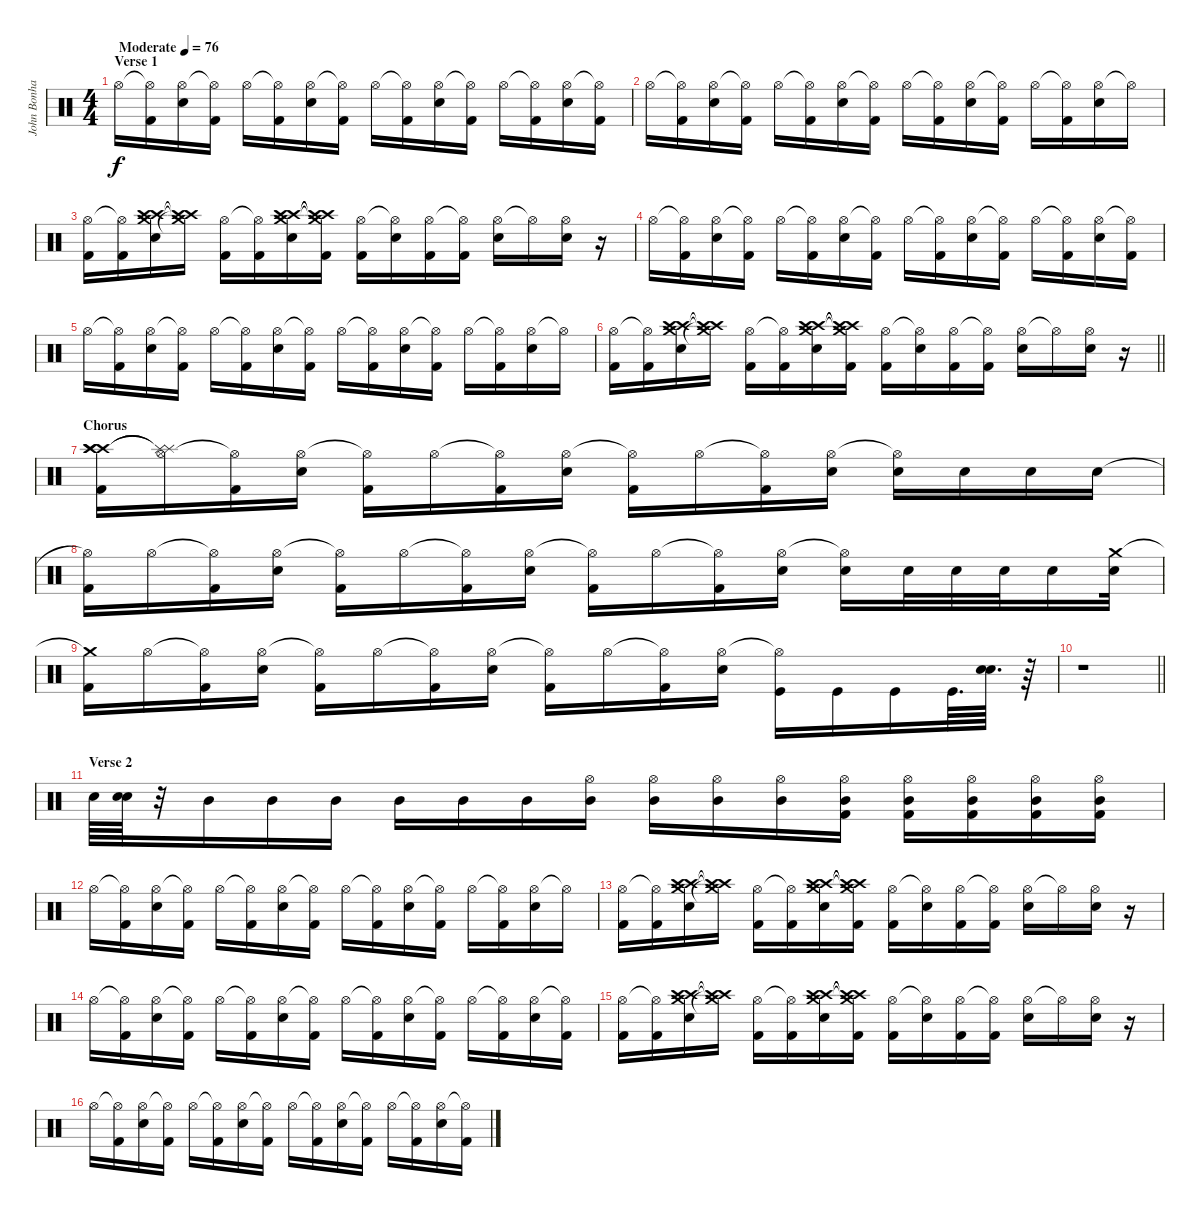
\track ("John Bonham" "John Bonha") {instrument percussion}
\staff {score}
\articulation defaults
\ts (4 4)
\section ("" "Verse 1")
\tempo (76 "Moderate")
\clef neutral
\ks c "Hi-Hat (open)".16{dy f}
("Hi-Hat (open)"{t} "Kick (hit) 2").16 ("Hi-Hat (open)" "Electric Snare (hit)").16 ("Hi-Hat (open)"{t} "Kick (hit) 2").16 "Hi-Hat (open)".16 ("Hi-Hat (open)"{t} "Kick (hit) 2").16 ("Hi-Hat (open)" "Electric Snare (hit)").16 ("Hi-Hat (open)"{t} "Kick (hit) 2").16 "Hi-Hat (open)".16 ("Hi-Hat (open)"{t} "Kick (hit) 2").16 ("Hi-Hat (open)" "Electric Snare (hit)").16 ("Hi-Hat (open)"{t} "Kick (hit) 2").16 "Hi-Hat (open)".16 ("Hi-Hat (open)"{t} "Kick (hit) 2").16 ("Hi-Hat (open)" "Electric Snare (hit)").16 ("Hi-Hat (open)"{t} "Kick (hit) 2").16 |
"Hi-Hat (open)".16 ("Hi-Hat (open)"{t} "Kick (hit) 2").16 ("Hi-Hat (open)" "Electric Snare (hit)").16 ("Hi-Hat (open)"{t} "Kick (hit) 2").16 "Hi-Hat (open)".16 ("Hi-Hat (open)"{t} "Kick (hit) 2").16 ("Hi-Hat (open)" "Electric Snare (hit)").16 ("Hi-Hat (open)"{t} "Kick (hit) 2").16 "Hi-Hat (open)".16 ("Hi-Hat (open)"{t} "Kick (hit) 2").16 ("Hi-Hat (open)" "Electric Snare (hit)").16 ("Hi-Hat (open)"{t} "Kick (hit) 2").16 "Hi-Hat (open)".16 ("Hi-Hat (open)"{t} "Kick (hit) 2").16 ("Hi-Hat (open)" "Electric Snare (hit)").16 "Hi-Hat (open)"{t}.16 |
("Hi-Hat (open)" "Kick (hit) 2").16 ("Hi-Hat (open)"{t} "Kick (hit) 2").16 ("Crash high (hit)" "Crash medium (hit)" "Electric Snare (hit)" "Crash high (hit)").16 ("Crash high (hit)"{t} "Crash medium (hit)"{t} "Crash high (hit)"{t}).16 ("Hi-Hat (open)" "Kick (hit) 2").16 ("Hi-Hat (open)"{t} "Kick (hit) 2").16 ("Crash high (hit)" "Crash medium (hit)" "Electric Snare (hit)" "Crash high (hit)").16 ("Crash high (hit)"{t} "Crash medium (hit)"{t} "Kick (hit) 2" "Crash high (hit)"{t}).16 ("Hi-Hat (open)" "Kick (hit) 2").16 ("Hi-Hat (open)"{t} "Electric Snare (hit)").16 ("Hi-Hat (open)" "Kick (hit) 2").16 ("Hi-Hat (open)"{t} "Kick (hit) 2").16 ("Hi-Hat (open)" "Electric Snare (hit)").16 "Hi-Hat (open)"{t}.16 ("Hi-Hat (open)" "Electric Snare (hit)").16 r.16 |
"Hi-Hat (open)".16 ("Hi-Hat (open)"{t} "Kick (hit) 2").16 ("Hi-Hat (open)" "Electric Snare (hit)").16 ("Hi-Hat (open)"{t} "Kick (hit) 2").16 "Hi-Hat (open)".16 ("Hi-Hat (open)"{t} "Kick (hit) 2").16 ("Hi-Hat (open)" "Electric Snare (hit)").16 ("Hi-Hat (open)"{t} "Kick (hit) 2").16 "Hi-Hat (open)".16 ("Hi-Hat (open)"{t} "Kick (hit) 2").16 ("Hi-Hat (open)" "Electric Snare (hit)").16 ("Hi-Hat (open)"{t} "Kick (hit) 2").16 "Hi-Hat (open)".16 ("Hi-Hat (open)"{t} "Kick (hit) 2").16 ("Hi-Hat (open)" "Electric Snare (hit)").16 ("Hi-Hat (open)"{t} "Kick (hit) 2").16 |
"Hi-Hat (open)".16 ("Hi-Hat (open)"{t} "Kick (hit) 2").16 ("Hi-Hat (open)" "Electric Snare (hit)").16 ("Hi-Hat (open)"{t} "Kick (hit) 2").16 "Hi-Hat (open)".16 ("Hi-Hat (open)"{t} "Kick (hit) 2").16 ("Hi-Hat (open)" "Electric Snare (hit)").16 ("Hi-Hat (open)"{t} "Kick (hit) 2").16 "Hi-Hat (open)".16 ("Hi-Hat (open)"{t} "Kick (hit) 2").16 ("Hi-Hat (open)" "Electric Snare (hit)").16 ("Hi-Hat (open)"{t} "Kick (hit) 2").16 "Hi-Hat (open)".16 ("Hi-Hat (open)"{t} "Kick (hit) 2").16 ("Hi-Hat (open)" "Electric Snare (hit)").16 "Hi-Hat (open)"{t}.16 |
\barLineRight lightlight
("Hi-Hat (open)" "Kick (hit) 2").16 ("Hi-Hat (open)"{t} "Kick (hit) 2").16 ("Crash high (hit)" "Crash medium (hit)" "Electric Snare (hit)" "Crash high (hit)").16 ("Crash high (hit)"{t} "Crash medium (hit)"{t} "Crash high (hit)"{t}).16 ("Hi-Hat (open)" "Kick (hit) 2").16 ("Hi-Hat (open)"{t} "Kick (hit) 2").16 ("Crash high (hit)" "Crash medium (hit)" "Electric Snare (hit)" "Crash high (hit)").16 ("Crash high (hit)"{t} "Crash medium (hit)"{t} "Kick (hit) 2" "Crash high (hit)"{t}).16 ("Hi-Hat (open)" "Kick (hit) 2").16 ("Hi-Hat (open)"{t} "Electric Snare (hit)").16 ("Hi-Hat (open)" "Kick (hit) 2").16 ("Hi-Hat (open)"{t} "Kick (hit) 2").16 ("Hi-Hat (open)" "Electric Snare (hit)").16 "Hi-Hat (open)"{t}.16 ("Hi-Hat (open)" "Electric Snare (hit)").16 r.16 |
\section ("" "Chorus")
("Crash high (hit)" "Crash high (hit)" "Crash high (hit)" "Kick (hit) 2").16 ("Hi-Hat (open)" "Splash (hit)"{t} "Splash (hit)"{t}).16 ("Hi-Hat (open)"{t} "Kick (hit) 2").16 ("Hi-Hat (open)" "Electric Snare (hit)").16 ("Hi-Hat (open)"{t} "Kick (hit) 2").16 "Hi-Hat (open)".16 ("Hi-Hat (open)"{t} "Kick (hit) 2").16 ("Hi-Hat (open)" "Electric Snare (hit)").16 ("Hi-Hat (open)"{t} "Kick (hit) 2").16 "Hi-Hat (open)".16 ("Hi-Hat (open)"{t} "Kick (hit) 2").16 ("Hi-Hat (open)" "Electric Snare (hit)").16 ("Hi-Hat (open)"{t} "Electric Snare (hit)").16 "Electric Snare (hit)".16 "Electric Snare (hit)".16 "Electric Snare (hit)".16 |
("Hi-Hat (open)"{t} "Kick (hit) 2").16 "Hi-Hat (open)".16 ("Hi-Hat (open)"{t} "Kick (hit) 2").16 ("Hi-Hat (open)" "Electric Snare (hit)").16 ("Hi-Hat (open)"{t} "Kick (hit) 2").16 "Hi-Hat (open)".16 ("Hi-Hat (open)"{t} "Kick (hit) 2").16 ("Hi-Hat (open)" "Electric Snare (hit)").16 ("Hi-Hat (open)"{t} "Kick (hit) 2").16 "Hi-Hat (open)".16 ("Hi-Hat (open)"{t} "Kick (hit) 2").16 ("Hi-Hat (open)" "Electric Snare (hit)").16 ("Hi-Hat (open)"{t} "Electric Snare (hit)").16 "Electric Snare (hit)".32 "Electric Snare (hit)".32 "Electric Snare (hit)".32 "Electric Snare (hit)".16 ("Crash medium (hit)" "Electric Snare (hit)").32 |
("Crash medium (hit)"{t} "Kick (hit) 2").16 "Hi-Hat (open)".16 ("Hi-Hat (open)"{t} "Kick (hit) 2").16 ("Hi-Hat (open)" "Electric Snare (hit)").16 ("Hi-Hat (open)"{t} "Kick (hit) 2").16 "Hi-Hat (open)".16 ("Hi-Hat (open)"{t} "Kick (hit) 2").16 ("Hi-Hat (open)" "Electric Snare (hit)").16 ("Hi-Hat (open)"{t} "Kick (hit) 2").16 "Hi-Hat (open)".16 ("Hi-Hat (open)"{t} "Kick (hit) 2").16 ("Hi-Hat (open)" "Electric Snare (hit)").16 ("Hi-Hat (open)"{t} "Kick (hit)").16 "Kick (hit)".16 "Kick (hit)".16 "Kick (hit)".64{d} ("Snare (hit) 2" "Electric Snare (hit)").64{d} r.64 |
\barLineRight lightlight
r.1 |
\section ("" "Verse 2")
"Electric Snare (hit)".64 ("Snare (hit) 2" "Electric Snare (hit)").64 r.32 "Mid Tom (hit)".16 "Mid Tom (hit)".16 "Mid Tom (hit)".16 "Mid Tom (hit)".16 "Mid Tom (hit)".16 "Mid Tom (hit)".16 ("Hi-Hat (open)" "Mid Tom (hit)").16 ("Hi-Hat (open)" "Mid Tom (hit)").16 ("Hi-Hat (open)" "Mid Tom (hit)").16 ("Hi-Hat (open)" "Mid Tom (hit)").16 ("Hi-Hat (open)" "Mid Tom (hit)" "Kick (hit) 2").16 ("Hi-Hat (open)" "Mid Tom (hit)" "Kick (hit) 2").16 ("Hi-Hat (open)" "Mid Tom (hit)" "Kick (hit) 2").16 ("Hi-Hat (open)" "Mid Tom (hit)" "Kick (hit) 2").16 ("Hi-Hat (open)" "Mid Tom (hit)" "Kick (hit) 2").16 |
"Hi-Hat (open)".16 ("Hi-Hat (open)"{t} "Kick (hit) 2").16 ("Hi-Hat (open)" "Electric Snare (hit)").16 ("Hi-Hat (open)"{t} "Kick (hit) 2").16 "Hi-Hat (open)".16 ("Hi-Hat (open)"{t} "Kick (hit) 2").16 ("Hi-Hat (open)" "Electric Snare (hit)").16 ("Hi-Hat (open)"{t} "Kick (hit) 2").16 "Hi-Hat (open)".16 ("Hi-Hat (open)"{t} "Kick (hit) 2").16 ("Hi-Hat (open)" "Electric Snare (hit)").16 ("Hi-Hat (open)"{t} "Kick (hit) 2").16 "Hi-Hat (open)".16 ("Hi-Hat (open)"{t} "Kick (hit) 2").16 ("Hi-Hat (open)" "Electric Snare (hit)").16 "Hi-Hat (open)"{t}.16 |
("Hi-Hat (open)" "Kick (hit) 2").16 ("Hi-Hat (open)"{t} "Kick (hit) 2").16 ("Crash high (hit)" "Crash medium (hit)" "Electric Snare (hit)" "Crash high (hit)").16 ("Crash high (hit)"{t} "Crash medium (hit)"{t} "Crash high (hit)"{t}).16 ("Hi-Hat (open)" "Kick (hit) 2").16 ("Hi-Hat (open)"{t} "Kick (hit) 2").16 ("Crash high (hit)" "Crash medium (hit)" "Electric Snare (hit)" "Crash high (hit)").16 ("Crash high (hit)"{t} "Crash medium (hit)"{t} "Kick (hit) 2" "Crash high (hit)"{t}).16 ("Hi-Hat (open)" "Kick (hit) 2").16 ("Hi-Hat (open)"{t} "Electric Snare (hit)").16 ("Hi-Hat (open)" "Kick (hit) 2").16 ("Hi-Hat (open)"{t} "Kick (hit) 2").16 ("Hi-Hat (open)" "Electric Snare (hit)").16 "Hi-Hat (open)"{t}.16 ("Hi-Hat (open)" "Electric Snare (hit)").16 r.16 |
"Hi-Hat (open)".16 ("Hi-Hat (open)"{t} "Kick (hit) 2").16 ("Hi-Hat (open)" "Electric Snare (hit)").16 ("Hi-Hat (open)"{t} "Kick (hit) 2").16 "Hi-Hat (open)".16 ("Hi-Hat (open)"{t} "Kick (hit) 2").16 ("Hi-Hat (open)" "Electric Snare (hit)").16 ("Hi-Hat (open)"{t} "Kick (hit) 2").16 "Hi-Hat (open)".16 ("Hi-Hat (open)"{t} "Kick (hit) 2").16 ("Hi-Hat (open)" "Electric Snare (hit)").16 ("Hi-Hat (open)"{t} "Kick (hit) 2").16 "Hi-Hat (open)".16 ("Hi-Hat (open)"{t} "Kick (hit) 2").16 ("Hi-Hat (open)" "Electric Snare (hit)").16 ("Hi-Hat (open)"{t} "Kick (hit) 2").16 |
("Hi-Hat (open)" "Kick (hit) 2").16 ("Hi-Hat (open)"{t} "Kick (hit) 2").16 ("Crash high (hit)" "Crash medium (hit)" "Electric Snare (hit)" "Crash high (hit)").16 ("Crash high (hit)"{t} "Crash medium (hit)"{t} "Crash high (hit)"{t}).16 ("Hi-Hat (open)" "Kick (hit) 2").16 ("Hi-Hat (open)"{t} "Kick (hit) 2").16 ("Crash high (hit)" "Crash medium (hit)" "Electric Snare (hit)" "Crash high (hit)").16 ("Crash high (hit)"{t} "Crash medium (hit)"{t} "Kick (hit) 2" "Crash high (hit)"{t}).16 ("Hi-Hat (open)" "Kick (hit) 2").16 ("Hi-Hat (open)"{t} "Electric Snare (hit)").16 ("Hi-Hat (open)" "Kick (hit) 2").16 ("Hi-Hat (open)"{t} "Kick (hit) 2").16 ("Hi-Hat (open)" "Electric Snare (hit)").16 "Hi-Hat (open)"{t}.16 ("Hi-Hat (open)" "Electric Snare (hit)").16 r.16 |
"Hi-Hat (open)".16 ("Hi-Hat (open)"{t} "Kick (hit) 2").16 ("Hi-Hat (open)" "Electric Snare (hit)").16 ("Hi-Hat (open)"{t} "Kick (hit) 2").16 "Hi-Hat (open)".16 ("Hi-Hat (open)"{t} "Kick (hit) 2").16 ("Hi-Hat (open)" "Electric Snare (hit)").16 ("Hi-Hat (open)"{t} "Kick (hit) 2").16 "Hi-Hat (open)".16 ("Hi-Hat (open)"{t} "Kick (hit) 2").16 ("Hi-Hat (open)" "Electric Snare (hit)").16 ("Hi-Hat (open)"{t} "Kick (hit) 2").16 "Hi-Hat (open)".16 ("Hi-Hat (open)"{t} "Kick (hit) 2").16 ("Hi-Hat (open)" "Electric Snare (hit)").16 ("Hi-Hat (open)"{t} "Kick (hit) 2").16
